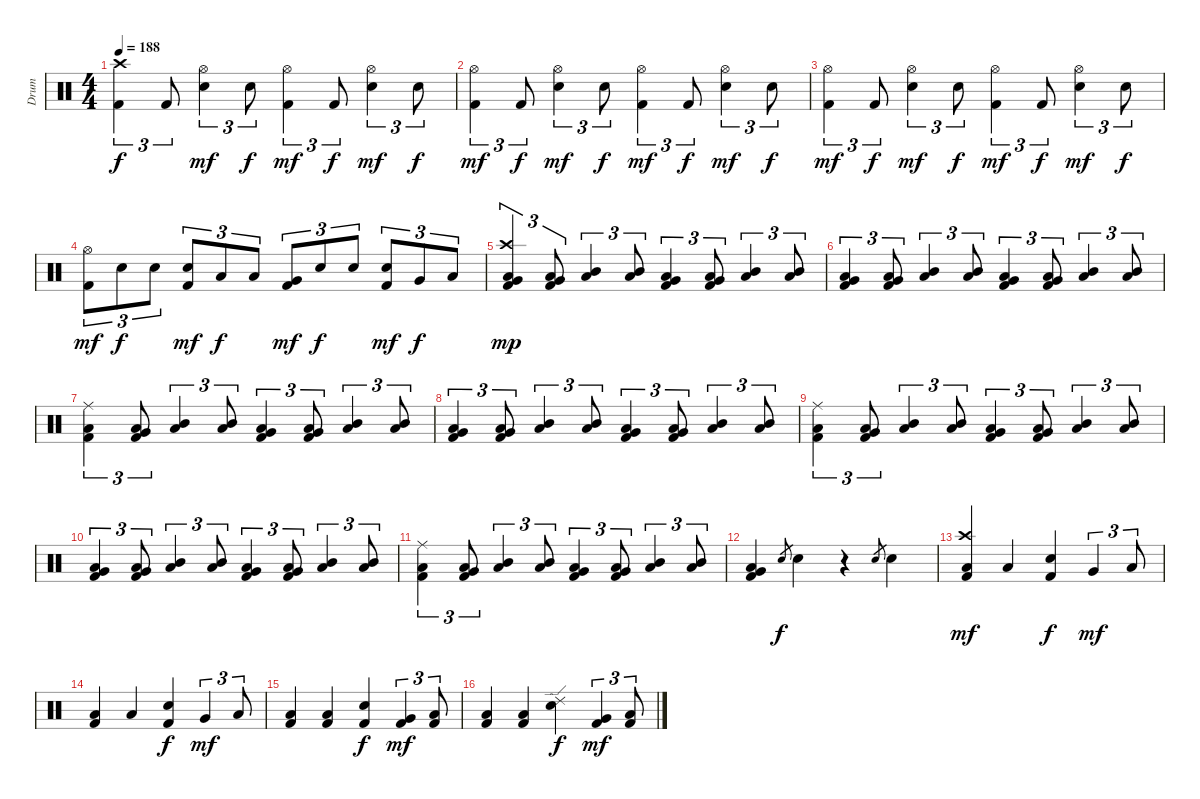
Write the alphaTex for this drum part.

\track ("Drum" "Drum") {instrument percussion}
\staff {score}
\articulation defaults
\ts (4 4)
\tempo 188
\clef neutral
\ks c
("Kick (hit) 2" "Crash high (hit)").4{tu (3 2) dy f} "Kick (hit) 2".8{tu (3 2)} ("Snare (hit) 2" "Hi-Hat (open)").4{tu (3 2) dy mf} "Snare (hit) 2".8{tu (3 2) dy f} ("Kick (hit) 2" "Hi-Hat (open)").4{tu (3 2) dy mf} "Kick (hit) 2".8{tu (3 2) dy f} ("Snare (hit) 2" "Hi-Hat (open)").4{tu (3 2) dy mf} "Snare (hit) 2".8{tu (3 2) dy f} |
("Kick (hit) 2" "Hi-Hat (open)").4{tu (3 2) dy mf} "Kick (hit) 2".8{tu (3 2) dy f} ("Snare (hit) 2" "Hi-Hat (open)").4{tu (3 2) dy mf} "Snare (hit) 2".8{tu (3 2) dy f} ("Kick (hit) 2" "Hi-Hat (open)").4{tu (3 2) dy mf} "Kick (hit) 2".8{tu (3 2) dy f} ("Snare (hit) 2" "Hi-Hat (open)").4{tu (3 2) dy mf} "Snare (hit) 2".8{tu (3 2) dy f} |
("Kick (hit) 2" "Hi-Hat (open)").4{tu (3 2) dy mf} "Kick (hit) 2".8{tu (3 2) dy f} ("Snare (hit) 2" "Hi-Hat (open)").4{tu (3 2) dy mf} "Snare (hit) 2".8{tu (3 2) dy f} ("Kick (hit) 2" "Hi-Hat (open)").4{tu (3 2) dy mf} "Kick (hit) 2".8{tu (3 2) dy f} ("Snare (hit) 2" "Hi-Hat (open)").4{tu (3 2) dy mf} "Snare (hit) 2".8{tu (3 2) dy f} |
("Kick (hit) 2" "Hi-Hat (open)").8{tu (3 2) dy mf} "Snare (hit) 2".8{tu (3 2) dy f} "Snare (hit) 2".8{tu (3 2)} ("Snare (hit) 2" "Kick (hit) 2").8{tu (3 2) dy mf} "Low Tom (hit)".8{tu (3 2) dy f} "Low Tom (hit)".8{tu (3 2)} ("Very Low Tom (hit)" "Kick (hit) 2").8{tu (3 2) dy mf} "Snare (hit) 2".8{tu (3 2) dy f} "Snare (hit) 2".8{tu (3 2)} ("Snare (hit) 2" "Kick (hit) 2").8{tu (3 2) dy mf} "Very Low Tom (hit)".8{tu (3 2) dy f} "Low Floor Tom (hit)".8{tu (3 2)} |
("Kick (hit) 2" "Low Floor Tom (hit)" "Crash high (hit)" "Very Low Tom (hit)").4{tu (3 2) dy mp} ("Kick (hit) 2" "Low Floor Tom (hit)" "Very Low Tom (hit)").8{tu (3 2)} ("Mid Tom (hit)" "Low Tom (hit)").4{tu (3 2)} ("Mid Tom (hit)" "Low Tom (hit)").8{tu (3 2)} ("Kick (hit) 2" "Low Floor Tom (hit)" "Very Low Tom (hit)").4{tu (3 2)} ("Kick (hit) 2" "Low Floor Tom (hit)" "Very Low Tom (hit)").8{tu (3 2)} ("Mid Tom (hit)" "Low Tom (hit)").4{tu (3 2)} ("Mid Tom (hit)" "Low Tom (hit)").8{tu (3 2)} |
("Kick (hit) 2" "Low Floor Tom (hit)" "Very Low Tom (hit)").4{tu (3 2)} ("Kick (hit) 2" "Low Floor Tom (hit)" "Very Low Tom (hit)").8{tu (3 2)} ("Mid Tom (hit)" "Low Tom (hit)").4{tu (3 2)} ("Mid Tom (hit)" "Low Tom (hit)").8{tu (3 2)} ("Kick (hit) 2" "Low Floor Tom (hit)" "Very Low Tom (hit)").4{tu (3 2)} ("Kick (hit) 2" "Low Floor Tom (hit)" "Very Low Tom (hit)").8{tu (3 2)} ("Mid Tom (hit)" "Low Tom (hit)").4{tu (3 2)} ("Mid Tom (hit)" "Low Tom (hit)").8{tu (3 2)} |
("Kick (hit) 2" "Low Floor Tom (hit)" "Ride (middle)").4{tu (3 2)} ("Kick (hit) 2" "Low Floor Tom (hit)" "Very Low Tom (hit)").8{tu (3 2)} ("Mid Tom (hit)" "Low Tom (hit)").4{tu (3 2)} ("Mid Tom (hit)" "Low Tom (hit)").8{tu (3 2)} ("Kick (hit) 2" "Low Floor Tom (hit)" "Very Low Tom (hit)").4{tu (3 2)} ("Kick (hit) 2" "Low Floor Tom (hit)" "Very Low Tom (hit)").8{tu (3 2)} ("Mid Tom (hit)" "Low Tom (hit)").4{tu (3 2)} ("Mid Tom (hit)" "Low Tom (hit)").8{tu (3 2)} |
("Kick (hit) 2" "Low Floor Tom (hit)" "Very Low Tom (hit)").4{tu (3 2)} ("Kick (hit) 2" "Low Floor Tom (hit)" "Very Low Tom (hit)").8{tu (3 2)} ("Mid Tom (hit)" "Low Tom (hit)").4{tu (3 2)} ("Mid Tom (hit)" "Low Tom (hit)").8{tu (3 2)} ("Kick (hit) 2" "Low Floor Tom (hit)" "Very Low Tom (hit)").4{tu (3 2)} ("Kick (hit) 2" "Low Floor Tom (hit)" "Very Low Tom (hit)").8{tu (3 2)} ("Mid Tom (hit)" "Low Tom (hit)").4{tu (3 2)} ("Mid Tom (hit)" "Low Tom (hit)").8{tu (3 2)} |
("Kick (hit) 2" "Low Floor Tom (hit)" "Ride (middle)").4{tu (3 2)} ("Kick (hit) 2" "Low Floor Tom (hit)" "Very Low Tom (hit)").8{tu (3 2)} ("Mid Tom (hit)" "Low Tom (hit)").4{tu (3 2)} ("Mid Tom (hit)" "Low Tom (hit)").8{tu (3 2)} ("Kick (hit) 2" "Low Floor Tom (hit)" "Very Low Tom (hit)").4{tu (3 2)} ("Kick (hit) 2" "Low Floor Tom (hit)" "Very Low Tom (hit)").8{tu (3 2)} ("Mid Tom (hit)" "Low Tom (hit)").4{tu (3 2)} ("Mid Tom (hit)" "Low Tom (hit)").8{tu (3 2)} |
("Kick (hit) 2" "Low Floor Tom (hit)" "Very Low Tom (hit)").4{tu (3 2)} ("Kick (hit) 2" "Low Floor Tom (hit)" "Very Low Tom (hit)").8{tu (3 2)} ("Mid Tom (hit)" "Low Tom (hit)").4{tu (3 2)} ("Mid Tom (hit)" "Low Tom (hit)").8{tu (3 2)} ("Kick (hit) 2" "Low Floor Tom (hit)" "Very Low Tom (hit)").4{tu (3 2)} ("Kick (hit) 2" "Low Floor Tom (hit)" "Very Low Tom (hit)").8{tu (3 2)} ("Mid Tom (hit)" "Low Tom (hit)").4{tu (3 2)} ("Mid Tom (hit)" "Low Tom (hit)").8{tu (3 2)} |
("Kick (hit) 2" "Low Floor Tom (hit)" "Ride (middle)").4{tu (3 2)} ("Kick (hit) 2" "Low Floor Tom (hit)" "Very Low Tom (hit)").8{tu (3 2)} ("Mid Tom (hit)" "Low Tom (hit)").4{tu (3 2)} ("Mid Tom (hit)" "Low Tom (hit)").8{tu (3 2)} ("Kick (hit) 2" "Low Floor Tom (hit)" "Very Low Tom (hit)").4{tu (3 2)} ("Kick (hit) 2" "Low Floor Tom (hit)" "Very Low Tom (hit)").8{tu (3 2)} ("Mid Tom (hit)" "Low Tom (hit)").4{tu (3 2)} ("Mid Tom (hit)" "Low Tom (hit)").8{tu (3 2)} |
("Kick (hit) 2" "Low Floor Tom (hit)" "Very Low Tom (hit)").4 "Snare (hit) 2".8{gr dy f} "Snare (hit) 2".4 r.4 "Snare (hit) 2".8{gr} "Snare (hit) 2".4 |
("Low Floor Tom (hit)" "Kick (hit) 2" "Crash high (hit)").4{dy mf} "Low Floor Tom (hit)".4 ("Snare (hit) 2" "Kick (hit) 2").4{dy f} "Very Low Tom (hit)".4{tu (3 2) dy mf} "Low Floor Tom (hit)".8{tu (3 2)} |
("Low Floor Tom (hit)" "Kick (hit) 2").4 "Low Floor Tom (hit)".4 ("Snare (hit) 2" "Kick (hit) 2").4{dy f} "Very Low Tom (hit)".4{tu (3 2) dy mf} "Low Floor Tom (hit)".8{tu (3 2)} |
("Low Floor Tom (hit)" "Kick (hit) 2").4 ("Low Floor Tom (hit)" "Kick (hit) 2").4 ("Snare (hit) 2" "Kick (hit) 2").4{dy f} ("Very Low Tom (hit)" "Kick (hit) 2").4{tu (3 2) dy mf} ("Low Floor Tom (hit)" "Kick (hit) 2").8{tu (3 2)} |
("Low Floor Tom (hit)" "Kick (hit) 2").4 ("Low Floor Tom (hit)" "Kick (hit) 2").4 ("Snare (hit) 2" "Ride (edge) 2").4{dy f} ("Very Low Tom (hit)" "Kick (hit) 2").4{tu (3 2) dy mf} ("Low Floor Tom (hit)" "Kick (hit) 2").8{tu (3 2)}
